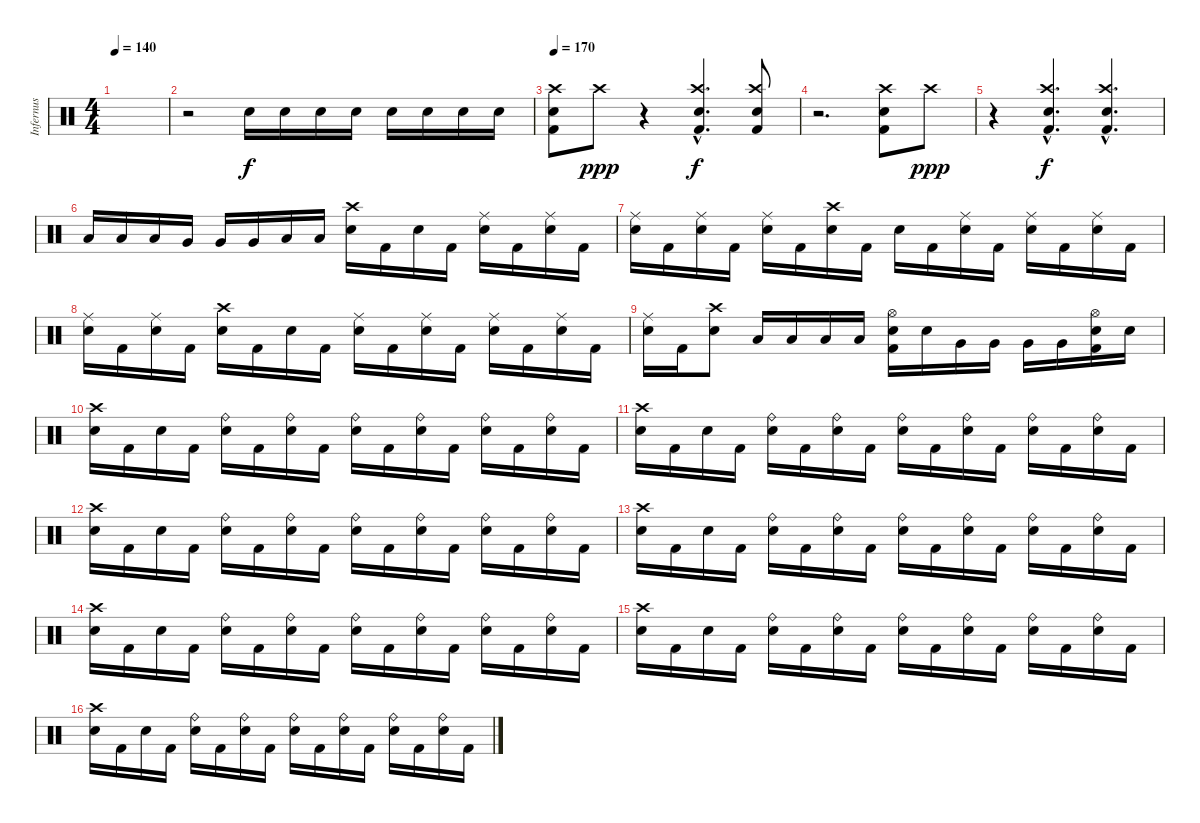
\track ("Infernus" "Infernus") {instrument percussion}
\staff {score}
\articulation defaults
\ts (4 4)
\tempo 140
\clef neutral
\ks c
|
r.2 "Electric Snare (hit)".16 "Electric Snare (hit)".16 "Electric Snare (hit)".16 "Electric Snare (hit)".16 "Electric Snare (hit)".16 "Electric Snare (hit)".16 "Electric Snare (hit)".16 "Electric Snare (hit)".16 |
\tempo 170
("Crash high (hit)" "Electric Snare (hit)" "Kick (hit) 2").8 "Crash high (hit)".8{dy ppp} r.4 ("Crash high (hit)"{hac} "Electric Snare (hit)"{hac} "Kick (hit) 2"{hac}).4{d dy f} ("Crash high (hit)" "Electric Snare (hit)" "Kick (hit) 2").8 |
r.2{d} ("Crash high (hit)" "Electric Snare (hit)" "Kick (hit) 2").8 "Crash high (hit)".8{dy ppp} |
r.4 ("Crash high (hit)"{hac} "Electric Snare (hit)"{hac} "Kick (hit) 2"{hac}).4{d dy f} ("Crash high (hit)"{hac} "Electric Snare (hit)"{hac} "Kick (hit) 2"{hac}).4{d} |
"Low Tom (hit)".16 "Low Tom (hit)".16 "Low Tom (hit)".16 "Very Low Tom (hit)".16 "Very Low Tom (hit)".16 "Very Low Tom (hit)".16 "Low Floor Tom (hit)".16 "Low Floor Tom (hit)".16 ("Crash high (hit)" "Electric Snare (hit)").16 "Kick (hit) 2".16 "Electric Snare (hit)".16 "Kick (hit) 2".16 ("Ride (middle)" "Electric Snare (hit)").16 "Kick (hit) 2".16 ("Ride (middle)" "Electric Snare (hit)").16 "Kick (hit) 2".16 |
("Ride (middle)" "Electric Snare (hit)").16 "Kick (hit) 2".16 ("Ride (middle)" "Electric Snare (hit)").16 "Kick (hit) 2".16 ("Ride (middle)" "Electric Snare (hit)").16 "Kick (hit) 2".16 ("Crash high (hit)" "Electric Snare (hit)").16 "Kick (hit) 2".16 "Electric Snare (hit)".16 "Kick (hit) 2".16 ("Ride (middle)" "Electric Snare (hit)").16 "Kick (hit) 2".16 ("Ride (middle)" "Electric Snare (hit)").16 "Kick (hit) 2".16 ("Ride (middle)" "Electric Snare (hit)").16 "Kick (hit) 2".16 |
("Ride (middle)" "Electric Snare (hit)").16 "Kick (hit) 2".16 ("Ride (middle)" "Electric Snare (hit)").16 "Kick (hit) 2".16 ("Crash high (hit)" "Electric Snare (hit)").16 "Kick (hit) 2".16 "Electric Snare (hit)".16 "Kick (hit) 2".16 ("Ride (middle)" "Electric Snare (hit)").16 "Kick (hit) 2".16 ("Ride (middle)" "Electric Snare (hit)").16 "Kick (hit) 2".16 ("Ride (middle)" "Electric Snare (hit)").16 "Kick (hit) 2".16 ("Ride (middle)" "Electric Snare (hit)").16 "Kick (hit) 2".16 |
("Ride (middle)" "Electric Snare (hit)").16 "Kick (hit) 2".16 ("Crash high (hit)" "Electric Snare (hit)").8 "Low Tom (hit)".16 "Low Tom (hit)".16 "Low Tom (hit)".16 "Low Tom (hit)".16 ("Hi-Hat (open)" "Electric Snare (hit)" "Kick (hit) 2").16 "Electric Snare (hit)".16 "Very Low Tom (hit)".16 "Very Low Tom (hit)".16 "Very Low Tom (hit)".16 "Very Low Tom (hit)".16 ("Hi-Hat (open)" "Electric Snare (hit)" "Kick (hit) 2").16 "Electric Snare (hit)".16 |
("Crash high (hit)" "Electric Snare (hit)").16 "Kick (hit) 2".16 "Electric Snare (hit)".16 "Kick (hit) 2".16 ("Ride (bell)" "Electric Snare (hit)").16 "Kick (hit) 2".16 ("Ride (bell)" "Electric Snare (hit)").16 "Kick (hit) 2".16 ("Ride (bell)" "Electric Snare (hit)").16 "Kick (hit) 2".16 ("Ride (bell)" "Electric Snare (hit)").16 "Kick (hit) 2".16 ("Ride (bell)" "Electric Snare (hit)").16 "Kick (hit) 2".16 ("Ride (bell)" "Electric Snare (hit)").16 "Kick (hit) 2".16 |
("Crash high (hit)" "Electric Snare (hit)").16 "Kick (hit) 2".16 "Electric Snare (hit)".16 "Kick (hit) 2".16 ("Ride (bell)" "Electric Snare (hit)").16 "Kick (hit) 2".16 ("Ride (bell)" "Electric Snare (hit)").16 "Kick (hit) 2".16 ("Ride (bell)" "Electric Snare (hit)").16 "Kick (hit) 2".16 ("Ride (bell)" "Electric Snare (hit)").16 "Kick (hit) 2".16 ("Ride (bell)" "Electric Snare (hit)").16 "Kick (hit) 2".16 ("Ride (bell)" "Electric Snare (hit)").16 "Kick (hit) 2".16 |
("Crash high (hit)" "Electric Snare (hit)").16 "Kick (hit) 2".16 "Electric Snare (hit)".16 "Kick (hit) 2".16 ("Ride (bell)" "Electric Snare (hit)").16 "Kick (hit) 2".16 ("Ride (bell)" "Electric Snare (hit)").16 "Kick (hit) 2".16 ("Ride (bell)" "Electric Snare (hit)").16 "Kick (hit) 2".16 ("Ride (bell)" "Electric Snare (hit)").16 "Kick (hit) 2".16 ("Ride (bell)" "Electric Snare (hit)").16 "Kick (hit) 2".16 ("Ride (bell)" "Electric Snare (hit)").16 "Kick (hit) 2".16 |
("Crash high (hit)" "Electric Snare (hit)").16 "Kick (hit) 2".16 "Electric Snare (hit)".16 "Kick (hit) 2".16 ("Ride (bell)" "Electric Snare (hit)").16 "Kick (hit) 2".16 ("Ride (bell)" "Electric Snare (hit)").16 "Kick (hit) 2".16 ("Ride (bell)" "Electric Snare (hit)").16 "Kick (hit) 2".16 ("Ride (bell)" "Electric Snare (hit)").16 "Kick (hit) 2".16 ("Ride (bell)" "Electric Snare (hit)").16 "Kick (hit) 2".16 ("Ride (bell)" "Electric Snare (hit)").16 "Kick (hit) 2".16 |
("Crash high (hit)" "Electric Snare (hit)").16 "Kick (hit) 2".16 "Electric Snare (hit)".16 "Kick (hit) 2".16 ("Ride (bell)" "Electric Snare (hit)").16 "Kick (hit) 2".16 ("Ride (bell)" "Electric Snare (hit)").16 "Kick (hit) 2".16 ("Ride (bell)" "Electric Snare (hit)").16 "Kick (hit) 2".16 ("Ride (bell)" "Electric Snare (hit)").16 "Kick (hit) 2".16 ("Ride (bell)" "Electric Snare (hit)").16 "Kick (hit) 2".16 ("Ride (bell)" "Electric Snare (hit)").16 "Kick (hit) 2".16 |
("Crash high (hit)" "Electric Snare (hit)").16 "Kick (hit) 2".16 "Electric Snare (hit)".16 "Kick (hit) 2".16 ("Ride (bell)" "Electric Snare (hit)").16 "Kick (hit) 2".16 ("Ride (bell)" "Electric Snare (hit)").16 "Kick (hit) 2".16 ("Ride (bell)" "Electric Snare (hit)").16 "Kick (hit) 2".16 ("Ride (bell)" "Electric Snare (hit)").16 "Kick (hit) 2".16 ("Ride (bell)" "Electric Snare (hit)").16 "Kick (hit) 2".16 ("Ride (bell)" "Electric Snare (hit)").16 "Kick (hit) 2".16 |
("Crash high (hit)" "Electric Snare (hit)").16 "Kick (hit) 2".16 "Electric Snare (hit)".16 "Kick (hit) 2".16 ("Ride (bell)" "Electric Snare (hit)").16 "Kick (hit) 2".16 ("Ride (bell)" "Electric Snare (hit)").16 "Kick (hit) 2".16 ("Ride (bell)" "Electric Snare (hit)").16 "Kick (hit) 2".16 ("Ride (bell)" "Electric Snare (hit)").16 "Kick (hit) 2".16 ("Ride (bell)" "Electric Snare (hit)").16 "Kick (hit) 2".16 ("Ride (bell)" "Electric Snare (hit)").16 "Kick (hit) 2".16
